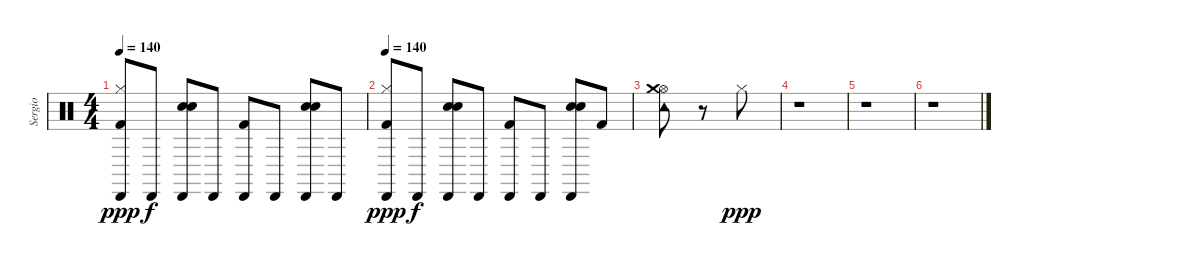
\track ("Sergio" "Sergio") {instrument percussion}
\staff {score}
\articulation defaults
\ts (4 4)
\tempo 140
\clef neutral
\ks c
("Kick (hit) 2" "Cabasa (hit)" "Hi-Hat (closed)").8{dy ppp} "Cabasa (hit)".8{dy f} ("Snare (hit) 2" "Cabasa (hit)" "Snare (hit) 2").8 "Cabasa (hit)".8 ("Kick (hit) 2" "Cabasa (hit)").8 "Cabasa (hit)".8 ("Snare (hit) 2" "Cabasa (hit)" "Snare (hit) 2").8 "Cabasa (hit)".8 |
\tempo 140
("Kick (hit) 2" "Cabasa (hit)" "Hi-Hat (closed)").8{dy ppp} "Cabasa (hit)".8{dy f} ("Snare (hit) 2" "Cabasa (hit)" "Snare (hit) 2").8 "Cabasa (hit)".8 ("Kick (hit) 2" "Cabasa (hit)").8 "Cabasa (hit)".8 ("Snare (hit) 2" "Cabasa (hit)" "Snare (hit) 2").8 "Kick (hit) 2".8 |
("Hi-Hat (open)" "Tambourine (hit)" "Crash medium (hit)").8 r.8 "Hi-Hat (closed)".8{dy ppp} |
r.1 |
r.1 |
r.1
